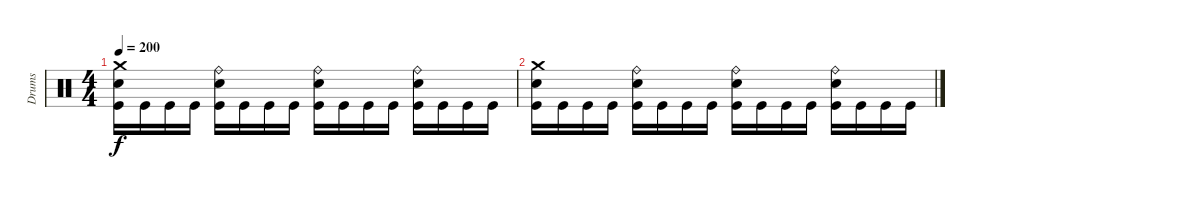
\track ("Drums" "Drums") {instrument percussion}
\staff {score}
\articulation defaults
\ts (4 4)
\tempo 200
\clef neutral
\ks c
("Crash medium (hit)" "Electric Snare (hit)" "Kick (hit)").16{dy f} "Kick (hit)".16 "Kick (hit)".16 "Kick (hit)".16 ("Ride (bell)" "Electric Snare (hit)" "Kick (hit)").16 "Kick (hit)".16 "Kick (hit)".16 "Kick (hit)".16 ("Ride (bell)" "Electric Snare (hit)" "Kick (hit)").16 "Kick (hit)".16 "Kick (hit)".16 "Kick (hit)".16 ("Ride (bell)" "Electric Snare (hit)" "Kick (hit)").16 "Kick (hit)".16 "Kick (hit)".16 "Kick (hit)".16 |
("Crash medium (hit)" "Electric Snare (hit)" "Kick (hit)").16 "Kick (hit)".16 "Kick (hit)".16 "Kick (hit)".16 ("Ride (bell)" "Electric Snare (hit)" "Kick (hit)").16 "Kick (hit)".16 "Kick (hit)".16 "Kick (hit)".16 ("Ride (bell)" "Electric Snare (hit)" "Kick (hit)").16 "Kick (hit)".16 "Kick (hit)".16 "Kick (hit)".16 ("Ride (bell)" "Electric Snare (hit)" "Kick (hit)").16 "Kick (hit)".16 "Kick (hit)".16 "Kick (hit)".16
